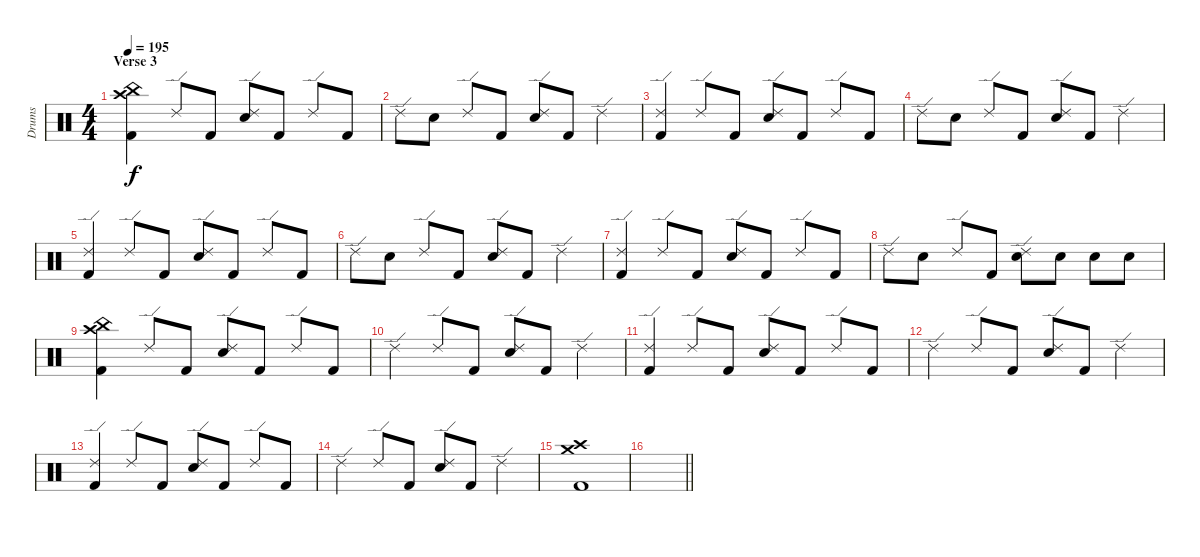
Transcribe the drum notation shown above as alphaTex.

\track ("Drums" "Drums") {instrument percussion}
\staff {score}
\articulation defaults
\ts (4 4)
\section ("" "Verse 3")
\tempo 195
\clef neutral
\ks c
("Crash high (hit)" "Kick (hit) 2" "China (hit)").4{dy f} "Ride (edge) 2".8 "Kick (hit) 2".8 ("Ride (edge) 2" "Snare (hit) 2").8 "Kick (hit) 2".8 "Ride (edge) 2".8 "Kick (hit) 2".8 |
"Ride (edge) 2".8 "Snare (hit) 2".8 "Ride (edge) 2".8 "Kick (hit) 2".8 ("Ride (edge) 2" "Snare (hit) 2").8 "Kick (hit) 2".8 "Ride (edge) 2".4 |
("Ride (edge) 2" "Kick (hit) 2").4 "Ride (edge) 2".8 "Kick (hit) 2".8 ("Ride (edge) 2" "Snare (hit) 2").8 "Kick (hit) 2".8 "Ride (edge) 2".8 "Kick (hit) 2".8 |
"Ride (edge) 2".8 "Snare (hit) 2".8 "Ride (edge) 2".8 "Kick (hit) 2".8 ("Ride (edge) 2" "Snare (hit) 2").8 "Kick (hit) 2".8 "Ride (edge) 2".4 |
("Ride (edge) 2" "Kick (hit) 2").4 "Ride (edge) 2".8 "Kick (hit) 2".8 ("Ride (edge) 2" "Snare (hit) 2").8 "Kick (hit) 2".8 "Ride (edge) 2".8 "Kick (hit) 2".8 |
"Ride (edge) 2".8 "Snare (hit) 2".8 "Ride (edge) 2".8 "Kick (hit) 2".8 ("Ride (edge) 2" "Snare (hit) 2").8 "Kick (hit) 2".8 "Ride (edge) 2".4 |
("Ride (edge) 2" "Kick (hit) 2").4 "Ride (edge) 2".8 "Kick (hit) 2".8 ("Ride (edge) 2" "Snare (hit) 2").8 "Kick (hit) 2".8 "Ride (edge) 2".8 "Kick (hit) 2".8 |
"Ride (edge) 2".8 "Snare (hit) 2".8 "Ride (edge) 2".8 "Kick (hit) 2".8 ("Ride (edge) 2" "Snare (hit) 2").8 "Snare (hit) 2".8 "Snare (hit) 2".8 "Snare (hit) 2".8 |
("Crash high (hit)" "Kick (hit) 2" "China (hit)").4 "Ride (edge) 2".8 "Kick (hit) 2".8 ("Ride (edge) 2" "Snare (hit) 2").8 "Kick (hit) 2".8 "Ride (edge) 2".8 "Kick (hit) 2".8 |
"Ride (edge) 2".4 "Ride (edge) 2".8 "Kick (hit) 2".8 ("Ride (edge) 2" "Snare (hit) 2").8 "Kick (hit) 2".8 "Ride (edge) 2".4 |
("Ride (edge) 2" "Kick (hit) 2").4 "Ride (edge) 2".8 "Kick (hit) 2".8 ("Ride (edge) 2" "Snare (hit) 2").8 "Kick (hit) 2".8 "Ride (edge) 2".8 "Kick (hit) 2".8 |
"Ride (edge) 2".4 "Ride (edge) 2".8 "Kick (hit) 2".8 ("Ride (edge) 2" "Snare (hit) 2").8 "Kick (hit) 2".8 "Ride (edge) 2".4 |
("Ride (edge) 2" "Kick (hit) 2").4 "Ride (edge) 2".8 "Kick (hit) 2".8 ("Ride (edge) 2" "Snare (hit) 2").8 "Kick (hit) 2".8 "Ride (edge) 2".8 "Kick (hit) 2".8 |
"Ride (edge) 2".4 "Ride (edge) 2".8 "Kick (hit) 2".8 ("Ride (edge) 2" "Snare (hit) 2").8 "Kick (hit) 2".8 "Ride (edge) 2".4 |
("Crash high (hit)" "Kick (hit) 2" "Crash medium (hit)").1 |
\barLineRight lightlight
